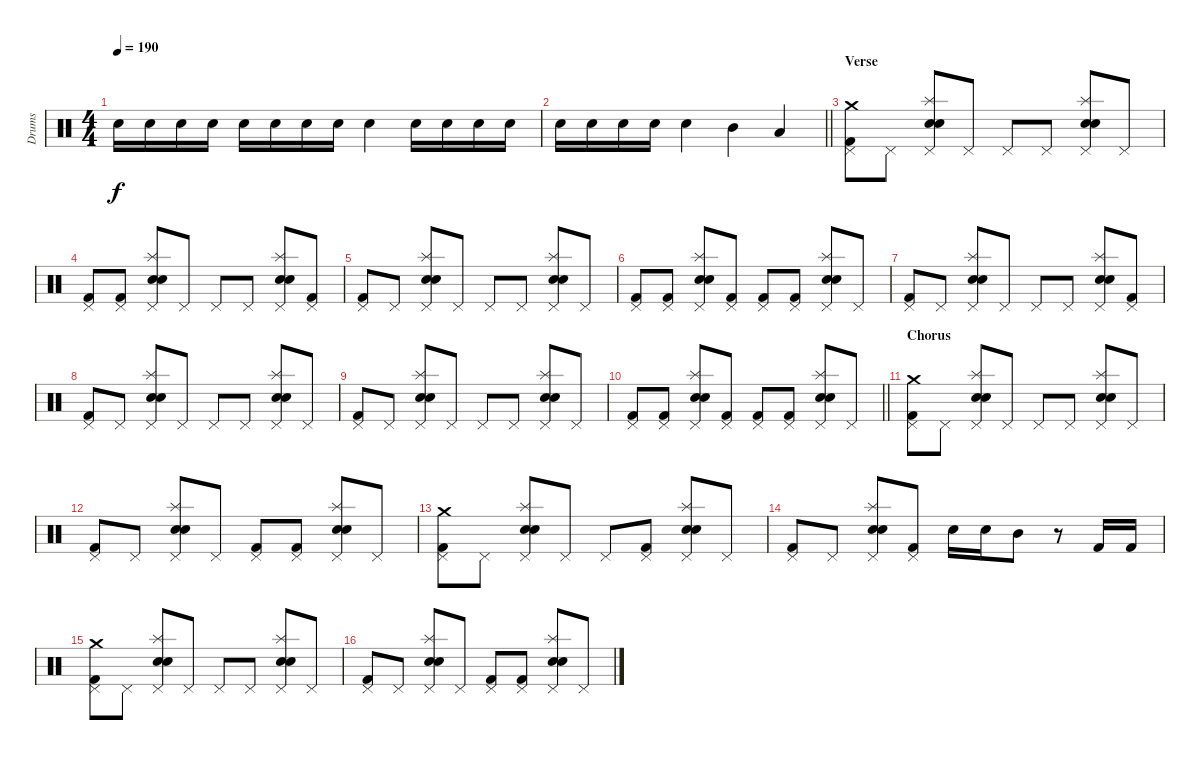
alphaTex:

\track ("Drums" "Drums") {instrument percussion}
\staff {score}
\articulation defaults
\ts (4 4)
\tempo 190
\clef neutral
\ks c "Electric Snare (hit)".16{dy f} "Electric Snare (hit)".16 "Electric Snare (hit)".16 "Electric Snare (hit)".16 "Electric Snare (hit)".16 "Electric Snare (hit)".16 "Electric Snare (hit)".16 "Electric Snare (hit)".16 "Electric Snare (hit)".4 "Electric Snare (hit)".16 "Electric Snare (hit)".16 "Electric Snare (hit)".16 "Electric Snare (hit)".16
|
\barLineRight lightlight "Electric Snare (hit)".16 "Electric Snare (hit)".16 "Electric Snare (hit)".16 "Electric Snare (hit)".16 "Electric Snare (hit)".4 "Mid Tom (hit)".4 "Low Tom (hit)".4
|
\section ("" "Verse")
("Crash medium (hit)" "Pedal Hi-Hat (hit)" "Kick (hit) 2").8 "Pedal Hi-Hat (hit)".8 ("Splash (hit)" "Pedal Hi-Hat (hit)" "Electric Snare (hit)" "Snare (hit) 2").8 "Pedal Hi-Hat (hit)".8 "Pedal Hi-Hat (hit)".8 "Pedal Hi-Hat (hit)".8 ("Splash (hit)" "Pedal Hi-Hat (hit)" "Electric Snare (hit)" "Snare (hit) 2").8 "Pedal Hi-Hat (hit)".8 |
("Pedal Hi-Hat (hit)" "Kick (hit) 2").8 ("Pedal Hi-Hat (hit)" "Kick (hit) 2").8 ("Splash (hit)" "Pedal Hi-Hat (hit)" "Electric Snare (hit)" "Snare (hit) 2").8 "Pedal Hi-Hat (hit)".8 "Pedal Hi-Hat (hit)".8 "Pedal Hi-Hat (hit)".8 ("Splash (hit)" "Pedal Hi-Hat (hit)" "Electric Snare (hit)" "Snare (hit) 2").8 ("Pedal Hi-Hat (hit)" "Kick (hit) 2").8 |
("Pedal Hi-Hat (hit)" "Kick (hit) 2").8 "Pedal Hi-Hat (hit)".8 ("Splash (hit)" "Pedal Hi-Hat (hit)" "Electric Snare (hit)" "Snare (hit) 2").8 "Pedal Hi-Hat (hit)".8 "Pedal Hi-Hat (hit)".8 "Pedal Hi-Hat (hit)".8 ("Splash (hit)" "Pedal Hi-Hat (hit)" "Electric Snare (hit)" "Snare (hit) 2").8 "Pedal Hi-Hat (hit)".8 |
("Pedal Hi-Hat (hit)" "Kick (hit) 2").8 ("Pedal Hi-Hat (hit)" "Kick (hit) 2").8 ("Splash (hit)" "Pedal Hi-Hat (hit)" "Electric Snare (hit)" "Snare (hit) 2").8 ("Pedal Hi-Hat (hit)" "Kick (hit) 2").8 ("Pedal Hi-Hat (hit)" "Kick (hit) 2").8 ("Pedal Hi-Hat (hit)" "Kick (hit) 2").8 ("Splash (hit)" "Pedal Hi-Hat (hit)" "Electric Snare (hit)" "Snare (hit) 2").8 "Pedal Hi-Hat (hit)".8 |
("Pedal Hi-Hat (hit)" "Kick (hit) 2").8 "Pedal Hi-Hat (hit)".8 ("Splash (hit)" "Pedal Hi-Hat (hit)" "Electric Snare (hit)" "Snare (hit) 2").8 "Pedal Hi-Hat (hit)".8 "Pedal Hi-Hat (hit)".8 "Pedal Hi-Hat (hit)".8 ("Splash (hit)" "Pedal Hi-Hat (hit)" "Electric Snare (hit)" "Snare (hit) 2").8 ("Pedal Hi-Hat (hit)" "Kick (hit) 2").8 |
("Pedal Hi-Hat (hit)" "Kick (hit) 2").8 "Pedal Hi-Hat (hit)".8 ("Splash (hit)" "Pedal Hi-Hat (hit)" "Electric Snare (hit)" "Snare (hit) 2").8 "Pedal Hi-Hat (hit)".8 "Pedal Hi-Hat (hit)".8 "Pedal Hi-Hat (hit)".8 ("Splash (hit)" "Pedal Hi-Hat (hit)" "Electric Snare (hit)" "Snare (hit) 2").8 "Pedal Hi-Hat (hit)".8 |
("Pedal Hi-Hat (hit)" "Kick (hit) 2").8 "Pedal Hi-Hat (hit)".8 ("Splash (hit)" "Pedal Hi-Hat (hit)" "Electric Snare (hit)" "Snare (hit) 2").8 "Pedal Hi-Hat (hit)".8 "Pedal Hi-Hat (hit)".8 "Pedal Hi-Hat (hit)".8 ("Splash (hit)" "Pedal Hi-Hat (hit)" "Electric Snare (hit)" "Snare (hit) 2").8 "Pedal Hi-Hat (hit)".8 |
\barLineRight lightlight
("Pedal Hi-Hat (hit)" "Kick (hit) 2").8 ("Pedal Hi-Hat (hit)" "Kick (hit) 2").8 ("Splash (hit)" "Pedal Hi-Hat (hit)" "Electric Snare (hit)" "Snare (hit) 2").8 ("Pedal Hi-Hat (hit)" "Kick (hit) 2").8 ("Pedal Hi-Hat (hit)" "Kick (hit) 2").8 ("Pedal Hi-Hat (hit)" "Kick (hit) 2").8 ("Splash (hit)" "Pedal Hi-Hat (hit)" "Electric Snare (hit)" "Snare (hit) 2").8 "Pedal Hi-Hat (hit)".8 |
\section ("" "Chorus")
("Crash medium (hit)" "Pedal Hi-Hat (hit)" "Kick (hit) 2").8 "Pedal Hi-Hat (hit)".8 ("Splash (hit)" "Pedal Hi-Hat (hit)" "Electric Snare (hit)" "Snare (hit) 2").8 "Pedal Hi-Hat (hit)".8 "Pedal Hi-Hat (hit)".8 "Pedal Hi-Hat (hit)".8 ("Splash (hit)" "Pedal Hi-Hat (hit)" "Electric Snare (hit)" "Snare (hit) 2").8 "Pedal Hi-Hat (hit)".8 |
("Pedal Hi-Hat (hit)" "Kick (hit) 2").8 "Pedal Hi-Hat (hit)".8 ("Splash (hit)" "Pedal Hi-Hat (hit)" "Electric Snare (hit)" "Snare (hit) 2").8 "Pedal Hi-Hat (hit)".8 ("Pedal Hi-Hat (hit)" "Kick (hit) 2").8 ("Pedal Hi-Hat (hit)" "Kick (hit) 2").8 ("Splash (hit)" "Pedal Hi-Hat (hit)" "Electric Snare (hit)" "Snare (hit) 2").8 "Pedal Hi-Hat (hit)".8 |
("Crash medium (hit)" "Pedal Hi-Hat (hit)" "Kick (hit) 2").8 "Pedal Hi-Hat (hit)".8 ("Splash (hit)" "Pedal Hi-Hat (hit)" "Electric Snare (hit)" "Snare (hit) 2").8 "Pedal Hi-Hat (hit)".8 "Pedal Hi-Hat (hit)".8 ("Pedal Hi-Hat (hit)" "Kick (hit) 2").8 ("Splash (hit)" "Pedal Hi-Hat (hit)" "Electric Snare (hit)" "Snare (hit) 2").8 "Pedal Hi-Hat (hit)".8 |
("Pedal Hi-Hat (hit)" "Kick (hit) 2").8 "Pedal Hi-Hat (hit)".8 ("Splash (hit)" "Pedal Hi-Hat (hit)" "Electric Snare (hit)" "Snare (hit) 2").8 ("Pedal Hi-Hat (hit)" "Kick (hit) 2").8 "Electric Snare (hit)".16 "Electric Snare (hit)".16 "Mid Tom (hit)".8 r.8 "Kick (hit) 2".16 "Kick (hit) 2".16 |
("Crash medium (hit)" "Pedal Hi-Hat (hit)" "Kick (hit) 2").8 "Pedal Hi-Hat (hit)".8 ("Splash (hit)" "Pedal Hi-Hat (hit)" "Electric Snare (hit)" "Snare (hit) 2").8 "Pedal Hi-Hat (hit)".8 "Pedal Hi-Hat (hit)".8 "Pedal Hi-Hat (hit)".8 ("Splash (hit)" "Pedal Hi-Hat (hit)" "Electric Snare (hit)" "Snare (hit) 2").8 "Pedal Hi-Hat (hit)".8 |
("Pedal Hi-Hat (hit)" "Kick (hit) 2").8 "Pedal Hi-Hat (hit)".8 ("Splash (hit)" "Pedal Hi-Hat (hit)" "Electric Snare (hit)" "Snare (hit) 2").8 "Pedal Hi-Hat (hit)".8 ("Pedal Hi-Hat (hit)" "Kick (hit) 2").8 ("Pedal Hi-Hat (hit)" "Kick (hit) 2").8 ("Splash (hit)" "Pedal Hi-Hat (hit)" "Electric Snare (hit)" "Snare (hit) 2").8 "Pedal Hi-Hat (hit)".8
